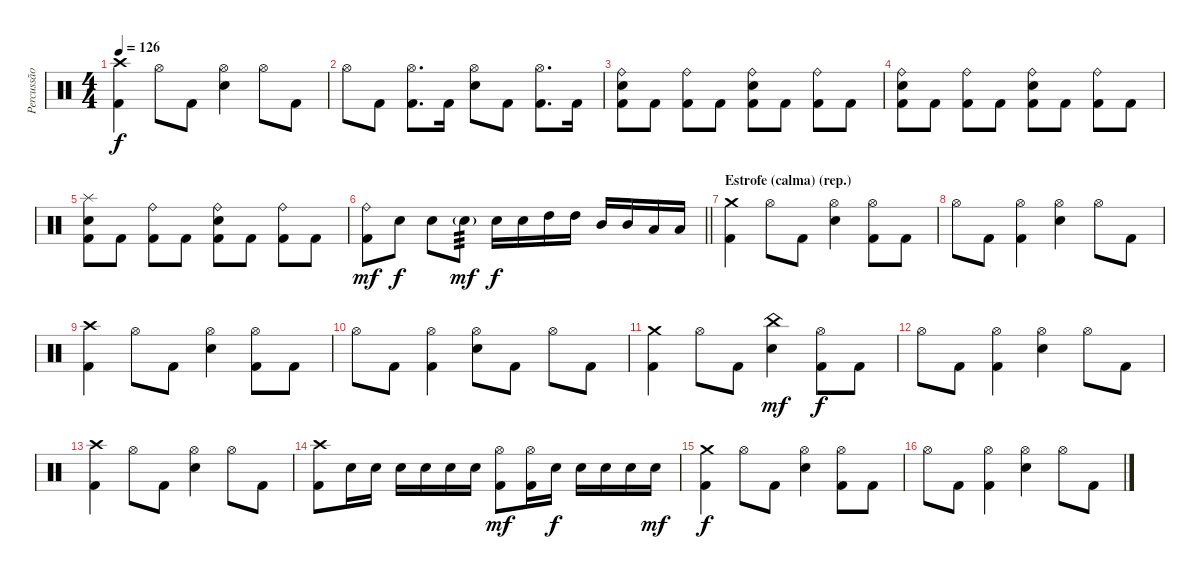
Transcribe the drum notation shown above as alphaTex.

\track ("Percussão" "Percussão") {instrument percussion}
\staff {score}
\articulation defaults
\ts (4 4)
\tempo 126
\clef neutral
\ks c
("Crash high (hit)" "Kick (hit) 2").4{dy f} "Hi-Hat (open)".8 "Kick (hit) 2".8 ("Hi-Hat (open)" "Electric Snare (hit)").4 "Hi-Hat (open)".8 "Kick (hit) 2".8 |
"Hi-Hat (open)".8 "Kick (hit) 2".8 ("Hi-Hat (open)" "Kick (hit) 2").8{d} "Kick (hit) 2".16 ("Hi-Hat (open)" "Electric Snare (hit)").8 "Kick (hit) 2".8 ("Hi-Hat (open)" "Kick (hit) 2").8{d} "Kick (hit) 2".16 |
("Ride (bell)" "Electric Snare (hit)" "Kick (hit) 2").8 "Kick (hit) 2".8 ("Ride (bell)" "Kick (hit) 2").8 "Kick (hit) 2".8 ("Ride (bell)" "Electric Snare (hit)" "Kick (hit) 2").8 "Kick (hit) 2".8 ("Ride (bell)" "Kick (hit) 2").8 "Kick (hit) 2".8 |
("Ride (bell)" "Electric Snare (hit)" "Kick (hit) 2").8 "Kick (hit) 2".8 ("Ride (bell)" "Kick (hit) 2").8 "Kick (hit) 2".8 ("Ride (bell)" "Electric Snare (hit)" "Kick (hit) 2").8 "Kick (hit) 2".8 ("Ride (bell)" "Kick (hit) 2").8 "Kick (hit) 2".8 |
("Splash (hit)" "Electric Snare (hit)" "Kick (hit) 2").8 "Kick (hit) 2".8 ("Ride (bell)" "Kick (hit) 2").8 "Kick (hit) 2".8 ("Ride (bell)" "Electric Snare (hit)" "Kick (hit) 2").8 "Kick (hit) 2".8 ("Ride (bell)" "Kick (hit) 2").8 "Kick (hit) 2".8 |
\barLineRight lightlight
("Ride (bell)" "Kick (hit) 2").8{dy mf} "Electric Snare (hit)".8{dy f} "Electric Snare (hit)".8 "Electric Snare (hit)"{g}.8{tp 3 dy mf} "Electric Snare (hit)".16{dy f} "Electric Snare (hit)".16 "High Tom (hit)".16 "High Tom (hit)".16 "Mid Tom (hit)".16 "Mid Tom (hit)".16 "Low Tom (hit)".16 "Low Tom (hit)".16 |
\section ("" "Estrofe (calma) (rep.)")
("Crash medium (hit)" "Kick (hit) 2").4 "Hi-Hat (open)".8 "Kick (hit) 2".8 ("Hi-Hat (open)" "Electric Snare (hit)").4 ("Hi-Hat (open)" "Kick (hit) 2").8 "Kick (hit) 2".8 |
"Hi-Hat (open)".8 "Kick (hit) 2".8 ("Hi-Hat (open)" "Kick (hit) 2").4 ("Hi-Hat (open)" "Electric Snare (hit)").4 "Hi-Hat (open)".8 "Kick (hit) 2".8 |
("Crash high (hit)" "Kick (hit) 2").4 "Hi-Hat (open)".8 "Kick (hit) 2".8 ("Hi-Hat (open)" "Electric Snare (hit)").4 ("Hi-Hat (open)" "Kick (hit) 2").8 "Kick (hit) 2".8 |
"Hi-Hat (open)".8 "Kick (hit) 2".8 ("Hi-Hat (open)" "Kick (hit) 2").4 ("Hi-Hat (open)" "Electric Snare (hit)").8 "Kick (hit) 2".8 "Hi-Hat (open)".8 "Kick (hit) 2".8 |
("Crash medium (hit)" "Kick (hit) 2").4 "Hi-Hat (open)".8 "Kick (hit) 2".8 ("China (hit)" "Electric Snare (hit)").4{dy mf} ("Hi-Hat (open)" "Kick (hit) 2").8{dy f} "Kick (hit) 2".8 |
"Hi-Hat (open)".8 "Kick (hit) 2".8 ("Hi-Hat (open)" "Kick (hit) 2").4 ("Hi-Hat (open)" "Electric Snare (hit)").4 "Hi-Hat (open)".8 "Kick (hit) 2".8 |
("Crash high (hit)" "Kick (hit) 2").4 "Hi-Hat (open)".8 "Kick (hit) 2".8 ("Hi-Hat (open)" "Electric Snare (hit)").4 "Hi-Hat (open)".8 "Kick (hit) 2".8 |
("Crash high (hit)" "Kick (hit) 2").8 "Electric Snare (hit)".16 "Electric Snare (hit)".16 "Electric Snare (hit)".16 "Electric Snare (hit)".16 "Electric Snare (hit)".16 "Electric Snare (hit)".16 ("Hi-Hat (open)" "Kick (hit) 2").8{dy mf} ("Hi-Hat (open)" "Kick (hit) 2").16 "Electric Snare (hit)".16{dy f} "Electric Snare (hit)".16 "Electric Snare (hit)".16 "Electric Snare (hit)".16 "Electric Snare (hit)".16{dy mf} |
("Crash medium (hit)" "Kick (hit) 2").4{dy f} "Hi-Hat (open)".8 "Kick (hit) 2".8 ("Hi-Hat (open)" "Electric Snare (hit)").4 ("Hi-Hat (open)" "Kick (hit) 2").8 "Kick (hit) 2".8 |
"Hi-Hat (open)".8 "Kick (hit) 2".8 ("Hi-Hat (open)" "Kick (hit) 2").4 ("Hi-Hat (open)" "Electric Snare (hit)").4 "Hi-Hat (open)".8 "Kick (hit) 2".8
